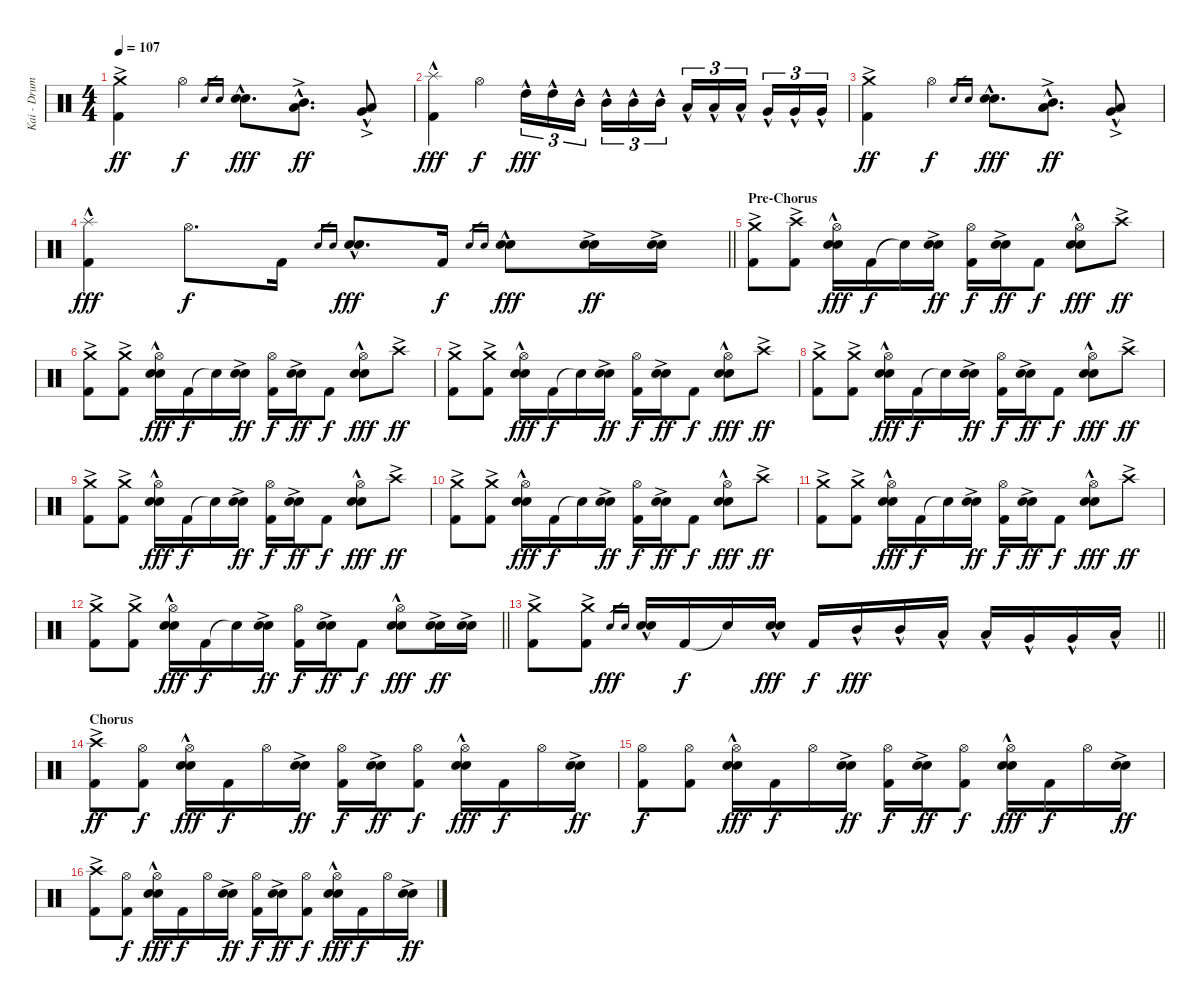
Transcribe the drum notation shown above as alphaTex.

\track ("Kai - Drums" "Kai - Drum") {instrument percussion}
\staff {score}
\articulation defaults
\ts (4 4)
\section ("" "")
\tempo 107
\clef neutral
\ks c
("Crash medium (hit)"{ac} "Kick (hit) 2").4{dy ff} "Hi-Hat (open)".4{dy f} "Electric Snare (hit)".16{gr} "Snare (hit) 2".16{gr} ("Electric Snare (hit)"{hac} "Snare (hit) 2"{hac}).8{d dy fff} ("Mid Tom (hit)"{hac} "Low Tom (hit)"{ac}).8{d dy ff} ("Low Tom (hit)"{hac} "Very Low Tom (hit)"{ac}).8 |
("Splash (hit)"{hac} "Kick (hit) 2").4{dy fff} "Hi-Hat (open)".4{dy f} "High Tom (hit)"{hac}.16{tu (3 2) dy fff} "High Tom (hit)"{hac}.16{tu (3 2)} "Mid Tom (hit)"{hac}.16{tu (3 2) beam splitsecondary} "Mid Tom (hit)"{hac}.16{tu (3 2)} "Mid Tom (hit)"{hac}.16{tu (3 2)} "Mid Tom (hit)"{hac}.16{tu (3 2)} "Low Tom (hit)"{hac}.16{tu (3 2)} "Low Tom (hit)"{hac}.16{tu (3 2)} "Low Tom (hit)"{hac}.16{tu (3 2) beam splitsecondary} "Very Low Tom (hit)"{hac}.16{tu (3 2)} "Very Low Tom (hit)"{hac}.16{tu (3 2)} "Very Low Tom (hit)"{hac}.16{tu (3 2)} |
("Crash medium (hit)"{ac} "Kick (hit) 2").4{dy ff} "Hi-Hat (open)".4{dy f} "Electric Snare (hit)".16{gr} "Snare (hit) 2".16{gr} ("Electric Snare (hit)"{hac} "Snare (hit) 2"{hac}).8{d dy fff} ("Mid Tom (hit)"{hac} "Low Tom (hit)"{ac}).8{d dy ff} ("Low Tom (hit)"{hac} "Very Low Tom (hit)"{ac}).8 |
\barLineRight lightlight
("Splash (hit)"{hac} "Kick (hit) 2").4{dy fff} "Hi-Hat (open)".8{d dy f} "Kick (hit) 2".16 "Electric Snare (hit)".16{gr} "Snare (hit) 2".16{gr} ("Electric Snare (hit)"{hac} "Snare (hit) 2"{hac}).8{d dy fff} "Kick (hit) 2".16{dy f} "Electric Snare (hit)".16{gr} "Snare (hit) 2".16{gr} ("Electric Snare (hit)"{hac} "Snare (hit) 2"{hac}).8{dy fff} ("Electric Snare (hit)"{ac} "Snare (hit) 2"{ac}).16{dy ff} ("Electric Snare (hit)"{ac} "Snare (hit) 2"{ac}).16 |
\section ("" "Pre-Chorus")
("Crash medium (hit)"{ac} "Kick (hit) 2").8 ("Crash high (hit)"{ac} "Kick (hit) 2").8 ("Hi-Hat (open)" "Electric Snare (hit)"{hac} "Snare (hit) 2"{hac}).16{dy fff} "Kick (hit) 2".16{dy f} "Snare (hit)"{t}.16 ("Electric Snare (hit)"{ac} "Snare (hit) 2"{ac}).16{dy ff} ("Hi-Hat (open)" "Kick (hit) 2").16{dy f} ("Electric Snare (hit)"{ac} "Snare (hit) 2"{ac}).16{dy ff} "Kick (hit) 2".8{dy f} ("Hi-Hat (open)" "Electric Snare (hit)"{hac} "Snare (hit) 2"{hac}).8{dy fff} "Crash high (hit)"{ac}.8{dy ff} |
("Crash medium (hit)"{ac} "Kick (hit) 2").8 ("Crash medium (hit)"{ac} "Kick (hit) 2").8 ("Hi-Hat (open)" "Electric Snare (hit)"{hac} "Snare (hit) 2"{hac}).16{dy fff} "Kick (hit) 2".16{dy f} "Snare (hit)"{t}.16 ("Electric Snare (hit)"{ac} "Snare (hit) 2"{ac}).16{dy ff} ("Hi-Hat (open)" "Kick (hit) 2").16{dy f} ("Electric Snare (hit)"{ac} "Snare (hit) 2"{ac}).16{dy ff} "Kick (hit) 2".8{dy f} ("Hi-Hat (open)" "Electric Snare (hit)"{hac} "Snare (hit) 2"{hac}).8{dy fff} "Crash high (hit)"{ac}.8{dy ff} |
("Crash medium (hit)"{ac} "Kick (hit) 2").8 ("Crash medium (hit)"{ac} "Kick (hit) 2").8 ("Hi-Hat (open)" "Electric Snare (hit)"{hac} "Snare (hit) 2"{hac}).16{dy fff} "Kick (hit) 2".16{dy f} "Snare (hit)"{t}.16 ("Electric Snare (hit)"{ac} "Snare (hit) 2"{ac}).16{dy ff} ("Hi-Hat (open)" "Kick (hit) 2").16{dy f} ("Electric Snare (hit)"{ac} "Snare (hit) 2"{ac}).16{dy ff} "Kick (hit) 2".8{dy f} ("Hi-Hat (open)" "Electric Snare (hit)"{hac} "Snare (hit) 2"{hac}).8{dy fff} "Crash high (hit)"{ac}.8{dy ff} |
("Crash medium (hit)"{ac} "Kick (hit) 2").8 ("Crash medium (hit)"{ac} "Kick (hit) 2").8 ("Hi-Hat (open)" "Electric Snare (hit)"{hac} "Snare (hit) 2"{hac}).16{dy fff} "Kick (hit) 2".16{dy f} "Snare (hit)"{t}.16 ("Electric Snare (hit)"{ac} "Snare (hit) 2"{ac}).16{dy ff} ("Hi-Hat (open)" "Kick (hit) 2").16{dy f} ("Electric Snare (hit)"{ac} "Snare (hit) 2"{ac}).16{dy ff} "Kick (hit) 2".8{dy f} ("Hi-Hat (open)" "Electric Snare (hit)"{hac} "Snare (hit) 2"{hac}).8{dy fff} "Crash high (hit)"{ac}.8{dy ff} |
("Crash medium (hit)"{ac} "Kick (hit) 2").8 ("Crash medium (hit)"{ac} "Kick (hit) 2").8 ("Hi-Hat (open)" "Electric Snare (hit)"{hac} "Snare (hit) 2"{hac}).16{dy fff} "Kick (hit) 2".16{dy f} "Snare (hit)"{t}.16 ("Electric Snare (hit)"{ac} "Snare (hit) 2"{ac}).16{dy ff} ("Hi-Hat (open)" "Kick (hit) 2").16{dy f} ("Electric Snare (hit)"{ac} "Snare (hit) 2"{ac}).16{dy ff} "Kick (hit) 2".8{dy f} ("Hi-Hat (open)" "Electric Snare (hit)"{hac} "Snare (hit) 2"{hac}).8{dy fff} "Crash high (hit)"{ac}.8{dy ff} |
("Crash medium (hit)"{ac} "Kick (hit) 2").8 ("Crash medium (hit)"{ac} "Kick (hit) 2").8 ("Hi-Hat (open)" "Electric Snare (hit)"{hac} "Snare (hit) 2"{hac}).16{dy fff} "Kick (hit) 2".16{dy f} "Snare (hit)"{t}.16 ("Electric Snare (hit)"{ac} "Snare (hit) 2"{ac}).16{dy ff} ("Hi-Hat (open)" "Kick (hit) 2").16{dy f} ("Electric Snare (hit)"{ac} "Snare (hit) 2"{ac}).16{dy ff} "Kick (hit) 2".8{dy f} ("Hi-Hat (open)" "Electric Snare (hit)"{hac} "Snare (hit) 2"{hac}).8{dy fff} "Crash high (hit)"{ac}.8{dy ff} |
("Crash medium (hit)"{ac} "Kick (hit) 2").8 ("Crash medium (hit)"{ac} "Kick (hit) 2").8 ("Hi-Hat (open)" "Electric Snare (hit)"{hac} "Snare (hit) 2"{hac}).16{dy fff} "Kick (hit) 2".16{dy f} "Snare (hit)"{t}.16 ("Electric Snare (hit)"{ac} "Snare (hit) 2"{ac}).16{dy ff} ("Hi-Hat (open)" "Kick (hit) 2").16{dy f} ("Electric Snare (hit)"{ac} "Snare (hit) 2"{ac}).16{dy ff} "Kick (hit) 2".8{dy f} ("Hi-Hat (open)" "Electric Snare (hit)"{hac} "Snare (hit) 2"{hac}).8{dy fff} "Crash high (hit)"{ac}.8{dy ff} |
\barLineRight lightlight
("Crash medium (hit)"{ac} "Kick (hit) 2").8 ("Crash medium (hit)"{ac} "Kick (hit) 2").8 ("Hi-Hat (open)" "Electric Snare (hit)"{hac} "Snare (hit) 2"{hac}).16{dy fff} "Kick (hit) 2".16{dy f} "Snare (hit)"{t}.16 ("Electric Snare (hit)"{ac} "Snare (hit) 2"{ac}).16{dy ff} ("Hi-Hat (open)" "Kick (hit) 2").16{dy f} ("Electric Snare (hit)"{ac} "Snare (hit) 2"{ac}).16{dy ff} "Kick (hit) 2".8{dy f} ("Hi-Hat (open)" "Electric Snare (hit)"{hac} "Snare (hit) 2"{hac}).8{dy fff} ("Electric Snare (hit)"{ac} "Snare (hit) 2"{ac}).16{dy ff} ("Electric Snare (hit)"{ac} "Snare (hit) 2"{ac}).16 |
\barLineRight lightlight
("Crash medium (hit)"{ac} "Kick (hit) 2").8 ("Crash medium (hit)"{ac} "Kick (hit) 2").8 "Electric Snare (hit)".16{gr dy fff} "Snare (hit) 2".16{gr} ("Electric Snare (hit)"{hac} "Snare (hit) 2"{hac}).16 "Kick (hit) 2".16{dy f} "Snare (hit)"{t}.16 ("Electric Snare (hit)"{hac} "Snare (hit) 2"{hac}).16{dy fff} "Kick (hit) 2".16{dy f} "Mid Tom (hit)"{hac}.16{dy fff} "Mid Tom (hit)"{hac}.16 "Low Tom (hit)"{hac}.16 "Low Tom (hit)"{hac}.16 "Very Low Tom (hit)"{hac}.16 "Very Low Tom (hit)"{hac}.16 "Low Floor Tom (hit)"{hac}.16 |
\section ("" "Chorus")
("Crash high (hit)"{ac} "Kick (hit) 2").8{dy ff} ("Hi-Hat (open)" "Kick (hit) 2").8{dy f} ("Hi-Hat (open)" "Electric Snare (hit)"{hac} "Snare (hit) 2"{hac}).16{dy fff} "Kick (hit) 2".16{dy f} "Hi-Hat (open)".16 ("Electric Snare (hit)"{ac} "Snare (hit) 2"{ac}).16{dy ff} ("Hi-Hat (open)" "Kick (hit) 2").16{dy f} ("Electric Snare (hit)"{ac} "Snare (hit) 2"{ac}).16{dy ff} ("Hi-Hat (open)" "Kick (hit) 2").8{dy f} ("Hi-Hat (open)" "Electric Snare (hit)"{hac} "Snare (hit) 2"{hac}).16{dy fff} "Kick (hit) 2".16{dy f} "Hi-Hat (open)".16 ("Electric Snare (hit)"{ac} "Snare (hit) 2"{ac}).16{dy ff} |
("Hi-Hat (open)" "Kick (hit) 2").8{dy f} ("Hi-Hat (open)" "Kick (hit) 2").8 ("Hi-Hat (open)" "Electric Snare (hit)"{hac} "Snare (hit) 2"{hac}).16{dy fff} "Kick (hit) 2".16{dy f} "Hi-Hat (open)".16 ("Electric Snare (hit)"{ac} "Snare (hit) 2"{ac}).16{dy ff} ("Hi-Hat (open)" "Kick (hit) 2").16{dy f} ("Electric Snare (hit)"{ac} "Snare (hit) 2"{ac}).16{dy ff} ("Hi-Hat (open)" "Kick (hit) 2").8{dy f} ("Hi-Hat (open)" "Electric Snare (hit)"{hac} "Snare (hit) 2"{hac}).16{dy fff} "Kick (hit) 2".16{dy f} "Hi-Hat (open)".16 ("Electric Snare (hit)"{ac} "Snare (hit) 2"{ac}).16{dy ff} |
("Crash high (hit)"{ac} "Kick (hit) 2").8 ("Hi-Hat (open)" "Kick (hit) 2").8{dy f} ("Hi-Hat (open)" "Electric Snare (hit)"{hac} "Snare (hit) 2"{hac}).16{dy fff} "Kick (hit) 2".16{dy f} "Hi-Hat (open)".16 ("Electric Snare (hit)"{ac} "Snare (hit) 2"{ac}).16{dy ff} ("Hi-Hat (open)" "Kick (hit) 2").16{dy f} ("Electric Snare (hit)"{ac} "Snare (hit) 2"{ac}).16{dy ff} ("Hi-Hat (open)" "Kick (hit) 2").8{dy f} ("Hi-Hat (open)" "Electric Snare (hit)"{hac} "Snare (hit) 2"{hac}).16{dy fff} "Kick (hit) 2".16{dy f} "Hi-Hat (open)".16 ("Electric Snare (hit)"{ac} "Snare (hit) 2"{ac}).16{dy ff}
